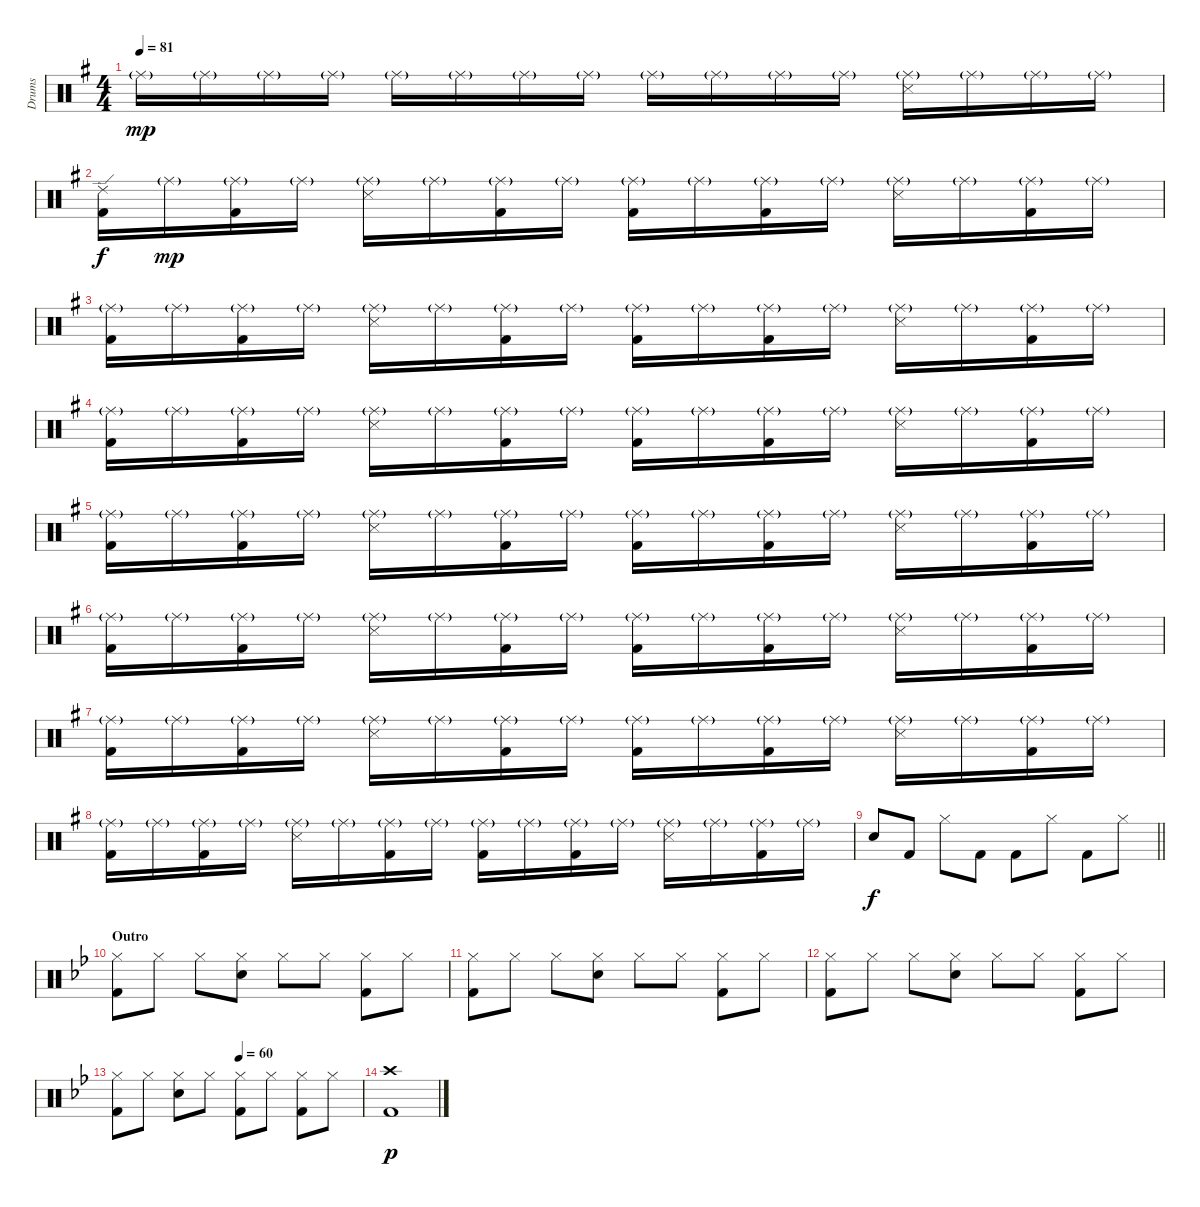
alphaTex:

\track ("Drums" "Drums") {instrument percussion}
\staff {score}
\articulation defaults
\ts (4 4)
\tempo 81
\clef neutral
\ks g "Ride (middle)"{g}.16{dy mp} "Ride (middle)"{g}.16 "Ride (middle)"{g}.16 "Ride (middle)"{g}.16 "Ride (middle)"{g}.16 "Ride (middle)"{g}.16 "Ride (middle)"{g}.16 "Ride (middle)"{g}.16 "Ride (middle)"{g}.16 "Ride (middle)"{g}.16 "Ride (middle)"{g}.16 "Ride (middle)"{g}.16
("Ride (middle)"{g} "Snare (side stick) 3").16 "Ride (middle)"{g}.16 "Ride (middle)"{g}.16 "Ride (middle)"{g}.16 |
("Ride (edge) 2" "Kick (hit) 2").16{dy f} "Ride (middle)"{g}.16{dy mp} ("Ride (middle)"{g} "Kick (hit) 2").16 "Ride (middle)"{g}.16 ("Ride (middle)"{g} "Snare (side stick) 3").16 "Ride (middle)"{g}.16 ("Ride (middle)"{g} "Kick (hit) 2").16 "Ride (middle)"{g}.16 ("Ride (middle)"{g} "Kick (hit) 2").16 "Ride (middle)"{g}.16 ("Ride (middle)"{g} "Kick (hit) 2").16 "Ride (middle)"{g}.16 ("Ride (middle)"{g} "Snare (side stick) 3").16 "Ride (middle)"{g}.16 ("Ride (middle)"{g} "Kick (hit) 2").16 "Ride (middle)"{g}.16 |
("Ride (middle)"{g} "Kick (hit) 2").16 "Ride (middle)"{g}.16 ("Ride (middle)"{g} "Kick (hit) 2").16 "Ride (middle)"{g}.16 ("Ride (middle)"{g} "Snare (side stick) 3").16 "Ride (middle)"{g}.16 ("Ride (middle)"{g} "Kick (hit) 2").16 "Ride (middle)"{g}.16 ("Ride (middle)"{g} "Kick (hit) 2").16 "Ride (middle)"{g}.16 ("Ride (middle)"{g} "Kick (hit) 2").16 "Ride (middle)"{g}.16 ("Ride (middle)"{g} "Snare (side stick) 3").16 "Ride (middle)"{g}.16 ("Ride (middle)"{g} "Kick (hit) 2").16 "Ride (middle)"{g}.16 |
("Ride (middle)"{g} "Kick (hit) 2").16 "Ride (middle)"{g}.16 ("Ride (middle)"{g} "Kick (hit) 2").16 "Ride (middle)"{g}.16 ("Ride (middle)"{g} "Snare (side stick) 3").16 "Ride (middle)"{g}.16 ("Ride (middle)"{g} "Kick (hit) 2").16 "Ride (middle)"{g}.16 ("Ride (middle)"{g} "Kick (hit) 2").16 "Ride (middle)"{g}.16 ("Ride (middle)"{g} "Kick (hit) 2").16 "Ride (middle)"{g}.16 ("Ride (middle)"{g} "Snare (side stick) 3").16 "Ride (middle)"{g}.16 ("Ride (middle)"{g} "Kick (hit) 2").16 "Ride (middle)"{g}.16 |
("Ride (middle)"{g} "Kick (hit) 2").16 "Ride (middle)"{g}.16 ("Ride (middle)"{g} "Kick (hit) 2").16 "Ride (middle)"{g}.16 ("Ride (middle)"{g} "Snare (side stick) 3").16 "Ride (middle)"{g}.16 ("Ride (middle)"{g} "Kick (hit) 2").16 "Ride (middle)"{g}.16 ("Ride (middle)"{g} "Kick (hit) 2").16 "Ride (middle)"{g}.16 ("Ride (middle)"{g} "Kick (hit) 2").16 "Ride (middle)"{g}.16 ("Ride (middle)"{g} "Snare (side stick) 3").16 "Ride (middle)"{g}.16 ("Ride (middle)"{g} "Kick (hit) 2").16 "Ride (middle)"{g}.16 |
("Ride (middle)"{g} "Kick (hit) 2").16 "Ride (middle)"{g}.16 ("Ride (middle)"{g} "Kick (hit) 2").16 "Ride (middle)"{g}.16 ("Ride (middle)"{g} "Snare (side stick) 3").16 "Ride (middle)"{g}.16 ("Ride (middle)"{g} "Kick (hit) 2").16 "Ride (middle)"{g}.16 ("Ride (middle)"{g} "Kick (hit) 2").16 "Ride (middle)"{g}.16 ("Ride (middle)"{g} "Kick (hit) 2").16 "Ride (middle)"{g}.16 ("Ride (middle)"{g} "Snare (side stick) 3").16 "Ride (middle)"{g}.16 ("Ride (middle)"{g} "Kick (hit) 2").16 "Ride (middle)"{g}.16 |
("Ride (middle)"{g} "Kick (hit) 2").16 "Ride (middle)"{g}.16 ("Ride (middle)"{g} "Kick (hit) 2").16 "Ride (middle)"{g}.16 ("Ride (middle)"{g} "Snare (side stick) 3").16 "Ride (middle)"{g}.16 ("Ride (middle)"{g} "Kick (hit) 2").16 "Ride (middle)"{g}.16 ("Ride (middle)"{g} "Kick (hit) 2").16 "Ride (middle)"{g}.16 ("Ride (middle)"{g} "Kick (hit) 2").16 "Ride (middle)"{g}.16 ("Ride (middle)"{g} "Snare (side stick) 3").16 "Ride (middle)"{g}.16 ("Ride (middle)"{g} "Kick (hit) 2").16 "Ride (middle)"{g}.16 |
("Ride (middle)"{g} "Kick (hit) 2").16 "Ride (middle)"{g}.16 ("Ride (middle)"{g} "Kick (hit) 2").16 "Ride (middle)"{g}.16 ("Ride (middle)"{g} "Snare (side stick) 3").16 "Ride (middle)"{g}.16 ("Ride (middle)"{g} "Kick (hit) 2").16 "Ride (middle)"{g}.16 ("Ride (middle)"{g} "Kick (hit) 2").16 "Ride (middle)"{g}.16 ("Ride (middle)"{g} "Kick (hit) 2").16 "Ride (middle)"{g}.16 ("Ride (middle)"{g} "Snare (side stick) 3").16 "Ride (middle)"{g}.16 ("Ride (middle)"{g} "Kick (hit) 2").16 "Ride (middle)"{g}.16 |
\barLineRight lightlight "Electric Snare (hit)".8{dy f} "Kick (hit) 2".8 "Hi-Hat (closed)".8 "Kick (hit) 2".8 "Kick (hit) 2".8 "Hi-Hat (closed)".8 "Kick (hit) 2".8 "Hi-Hat (closed)".8
|
\section ("" "Outro")
\ks gminor
("Hi-Hat (closed)" "Kick (hit) 2").8 "Hi-Hat (closed)".8 "Hi-Hat (closed)".8 ("Hi-Hat (closed)" "Electric Snare (hit)").8 "Hi-Hat (closed)".8 "Hi-Hat (closed)".8 ("Hi-Hat (closed)" "Kick (hit) 2").8 "Hi-Hat (closed)".8 |
("Hi-Hat (closed)" "Kick (hit) 2").8 "Hi-Hat (closed)".8 "Hi-Hat (closed)".8 ("Hi-Hat (closed)" "Electric Snare (hit)").8 "Hi-Hat (closed)".8 "Hi-Hat (closed)".8 ("Hi-Hat (closed)" "Kick (hit) 2").8 "Hi-Hat (closed)".8 |
("Hi-Hat (closed)" "Kick (hit) 2").8 "Hi-Hat (closed)".8 "Hi-Hat (closed)".8 ("Hi-Hat (closed)" "Electric Snare (hit)").8 "Hi-Hat (closed)".8 "Hi-Hat (closed)".8 ("Hi-Hat (closed)" "Kick (hit) 2").8 "Hi-Hat (closed)".8 |
\tempo (60 0.5)
("Hi-Hat (closed)" "Kick (hit) 2").8 "Hi-Hat (closed)".8 ("Hi-Hat (closed)" "Electric Snare (hit)").8 "Hi-Hat (closed)".8 ("Hi-Hat (closed)" "Kick (hit) 2").8 "Hi-Hat (closed)".8 ("Hi-Hat (closed)" "Kick (hit) 2").8 "Hi-Hat (closed)".8 |
("Crash high (hit)" "Kick (hit) 2").1{dy p}
